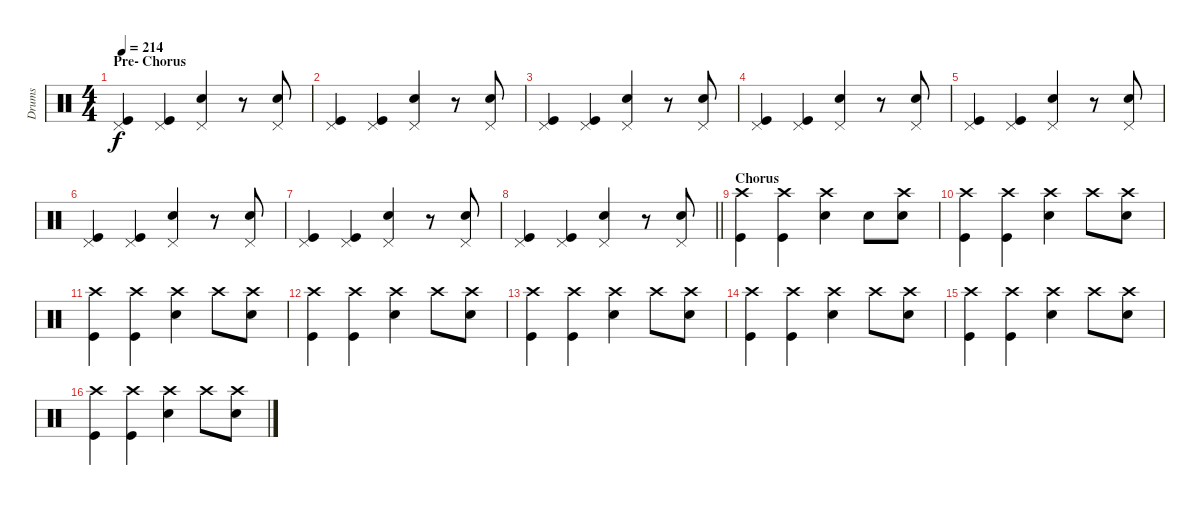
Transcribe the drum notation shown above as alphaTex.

\track ("Drums" "Drums") {instrument percussion}
\staff {score}
\articulation defaults
\ts (4 4)
\section ("" "Pre- Chorus")
\tempo 214
\clef neutral
\ks c
("Pedal Hi-Hat (hit)" "Kick (hit)").4{dy f volume 11} ("Pedal Hi-Hat (hit)" "Kick (hit)").4 ("Pedal Hi-Hat (hit)" "Snare (hit) 2").4 r.8 ("Pedal Hi-Hat (hit)" "Snare (hit) 2").8 |
("Pedal Hi-Hat (hit)" "Kick (hit)").4 ("Pedal Hi-Hat (hit)" "Kick (hit)").4 ("Pedal Hi-Hat (hit)" "Snare (hit) 2").4 r.8 ("Pedal Hi-Hat (hit)" "Snare (hit) 2").8 |
("Pedal Hi-Hat (hit)" "Kick (hit)").4 ("Pedal Hi-Hat (hit)" "Kick (hit)").4 ("Pedal Hi-Hat (hit)" "Snare (hit) 2").4 r.8 ("Pedal Hi-Hat (hit)" "Snare (hit) 2").8 |
("Pedal Hi-Hat (hit)" "Kick (hit)").4 ("Pedal Hi-Hat (hit)" "Kick (hit)").4 ("Pedal Hi-Hat (hit)" "Snare (hit) 2").4 r.8 ("Pedal Hi-Hat (hit)" "Snare (hit) 2").8 |
("Pedal Hi-Hat (hit)" "Kick (hit)").4 ("Pedal Hi-Hat (hit)" "Kick (hit)").4 ("Pedal Hi-Hat (hit)" "Snare (hit) 2").4 r.8 ("Pedal Hi-Hat (hit)" "Snare (hit) 2").8 |
("Pedal Hi-Hat (hit)" "Kick (hit)").4 ("Pedal Hi-Hat (hit)" "Kick (hit)").4 ("Pedal Hi-Hat (hit)" "Snare (hit) 2").4 r.8 ("Pedal Hi-Hat (hit)" "Snare (hit) 2").8 |
("Pedal Hi-Hat (hit)" "Kick (hit)").4 ("Pedal Hi-Hat (hit)" "Kick (hit)").4 ("Pedal Hi-Hat (hit)" "Snare (hit) 2").4 r.8 ("Pedal Hi-Hat (hit)" "Snare (hit) 2").8 |
\barLineRight lightlight
("Pedal Hi-Hat (hit)" "Kick (hit)").4 ("Pedal Hi-Hat (hit)" "Kick (hit)").4 ("Pedal Hi-Hat (hit)" "Snare (hit) 2").4 r.8 ("Pedal Hi-Hat (hit)" "Snare (hit) 2").8 |
\section ("" "Chorus")
("Crash high (hit)" "Kick (hit)").4 ("Crash high (hit)" "Kick (hit)").4 ("Crash high (hit)" "Snare (hit) 2").4 "Snare (hit)".8 ("Crash high (hit)" "Snare (hit) 2").8 |
("Crash high (hit)" "Kick (hit)").4 ("Crash high (hit)" "Kick (hit)").4 ("Crash high (hit)" "Snare (hit) 2").4 "Crash high (hit)".8 ("Crash high (hit)" "Snare (hit) 2").8 |
("Crash high (hit)" "Kick (hit)").4 ("Crash high (hit)" "Kick (hit)").4 ("Crash high (hit)" "Snare (hit) 2").4 "Crash high (hit)".8 ("Crash high (hit)" "Snare (hit) 2").8 |
("Crash high (hit)" "Kick (hit)").4 ("Crash high (hit)" "Kick (hit)").4 ("Crash high (hit)" "Snare (hit) 2").4 "Crash high (hit)".8 ("Crash high (hit)" "Snare (hit) 2").8 |
("Crash high (hit)" "Kick (hit)").4 ("Crash high (hit)" "Kick (hit)").4 ("Crash high (hit)" "Snare (hit) 2").4 "Crash high (hit)".8 ("Crash high (hit)" "Snare (hit) 2").8 |
("Crash high (hit)" "Kick (hit)").4 ("Crash high (hit)" "Kick (hit)").4 ("Crash high (hit)" "Snare (hit) 2").4 "Crash high (hit)".8 ("Crash high (hit)" "Snare (hit) 2").8 |
("Crash high (hit)" "Kick (hit)").4 ("Crash high (hit)" "Kick (hit)").4 ("Crash high (hit)" "Snare (hit) 2").4 "Crash high (hit)".8 ("Crash high (hit)" "Snare (hit) 2").8 |
("Crash high (hit)" "Kick (hit)").4 ("Crash high (hit)" "Kick (hit)").4 ("Crash high (hit)" "Snare (hit) 2").4 "Crash high (hit)".8 ("Crash high (hit)" "Snare (hit) 2").8
